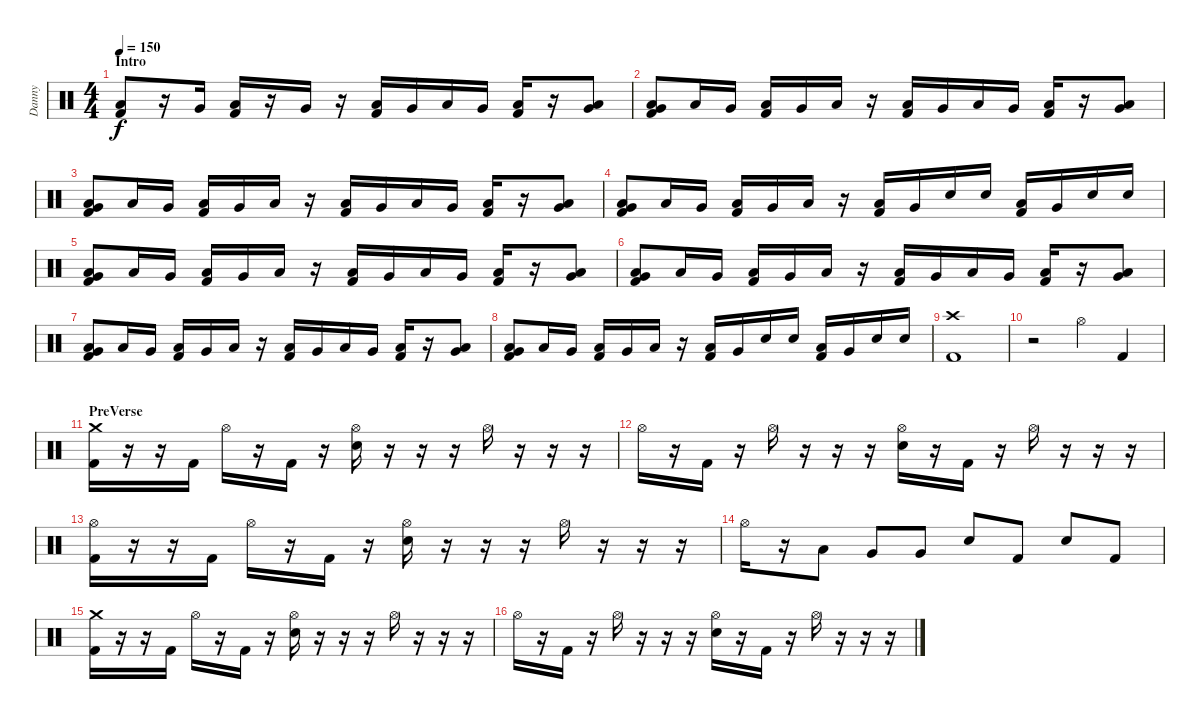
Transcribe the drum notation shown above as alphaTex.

\track ("Danny" "Danny") {instrument percussion}
\staff {score}
\articulation defaults
\ts (4 4)
\section ("" "Intro")
\tempo 150
\clef neutral
\ks c
("Low Floor Tom (hit)" "Kick (hit) 2").8{dy f} r.16 "Very Low Tom (hit)".16 ("Low Floor Tom (hit)" "Kick (hit) 2").16 r.16 "Very Low Tom (hit)".16 r.16 ("Low Floor Tom (hit)" "Kick (hit) 2").16 "Very Low Tom (hit)".16 "Low Floor Tom (hit)".16 "Very Low Tom (hit)".16 ("Low Floor Tom (hit)" "Kick (hit) 2").16 r.16 ("Very Low Tom (hit)" "Low Floor Tom (hit)").8 |
("Very Low Tom (hit)" "Low Floor Tom (hit)" "Kick (hit) 2").8 "Low Floor Tom (hit)".16 "Very Low Tom (hit)".16 ("Low Floor Tom (hit)" "Kick (hit) 2").16 "Very Low Tom (hit)".16 "Low Floor Tom (hit)".16 r.16 ("Low Floor Tom (hit)" "Kick (hit) 2").16 "Very Low Tom (hit)".16 "Low Floor Tom (hit)".16 "Very Low Tom (hit)".16 ("Low Floor Tom (hit)" "Kick (hit) 2").16 r.16 ("Very Low Tom (hit)" "Low Floor Tom (hit)").8 |
("Very Low Tom (hit)" "Low Floor Tom (hit)" "Kick (hit) 2").8 "Low Floor Tom (hit)".16 "Very Low Tom (hit)".16 ("Low Floor Tom (hit)" "Kick (hit) 2").16 "Very Low Tom (hit)".16 "Low Floor Tom (hit)".16 r.16 ("Low Floor Tom (hit)" "Kick (hit) 2").16 "Very Low Tom (hit)".16 "Low Floor Tom (hit)".16 "Very Low Tom (hit)".16 ("Low Floor Tom (hit)" "Kick (hit) 2").16 r.16 ("Very Low Tom (hit)" "Low Floor Tom (hit)").8 |
("Very Low Tom (hit)" "Low Floor Tom (hit)" "Kick (hit) 2").8 "Low Floor Tom (hit)".16 "Very Low Tom (hit)".16 ("Low Floor Tom (hit)" "Kick (hit) 2").16 "Very Low Tom (hit)".16 "Low Floor Tom (hit)".16 r.16 ("Low Floor Tom (hit)" "Kick (hit) 2").16 "Very Low Tom (hit)".16 "Electric Snare (hit)".16 "Electric Snare (hit)".16 ("Low Floor Tom (hit)" "Kick (hit) 2").16 "Very Low Tom (hit)".16 "Electric Snare (hit)".16 "Electric Snare (hit)".16 |
("Very Low Tom (hit)" "Low Floor Tom (hit)" "Kick (hit) 2").8 "Low Floor Tom (hit)".16 "Very Low Tom (hit)".16 ("Low Floor Tom (hit)" "Kick (hit) 2").16 "Very Low Tom (hit)".16 "Low Floor Tom (hit)".16 r.16 ("Low Floor Tom (hit)" "Kick (hit) 2").16 "Very Low Tom (hit)".16 "Low Floor Tom (hit)".16 "Very Low Tom (hit)".16 ("Low Floor Tom (hit)" "Kick (hit) 2").16 r.16 ("Very Low Tom (hit)" "Low Floor Tom (hit)").8 |
("Very Low Tom (hit)" "Low Floor Tom (hit)" "Kick (hit) 2").8 "Low Floor Tom (hit)".16 "Very Low Tom (hit)".16 ("Low Floor Tom (hit)" "Kick (hit) 2").16 "Very Low Tom (hit)".16 "Low Floor Tom (hit)".16 r.16 ("Low Floor Tom (hit)" "Kick (hit) 2").16 "Very Low Tom (hit)".16 "Low Floor Tom (hit)".16 "Very Low Tom (hit)".16 ("Low Floor Tom (hit)" "Kick (hit) 2").16 r.16 ("Very Low Tom (hit)" "Low Floor Tom (hit)").8 |
("Very Low Tom (hit)" "Low Floor Tom (hit)" "Kick (hit) 2").8 "Low Floor Tom (hit)".16 "Very Low Tom (hit)".16 ("Low Floor Tom (hit)" "Kick (hit) 2").16 "Very Low Tom (hit)".16 "Low Floor Tom (hit)".16 r.16 ("Low Floor Tom (hit)" "Kick (hit) 2").16 "Very Low Tom (hit)".16 "Low Floor Tom (hit)".16 "Very Low Tom (hit)".16 ("Low Floor Tom (hit)" "Kick (hit) 2").16 r.16 ("Very Low Tom (hit)" "Low Floor Tom (hit)").8 |
("Very Low Tom (hit)" "Low Floor Tom (hit)" "Kick (hit) 2").8 "Low Floor Tom (hit)".16 "Very Low Tom (hit)".16 ("Low Floor Tom (hit)" "Kick (hit) 2").16 "Very Low Tom (hit)".16 "Low Floor Tom (hit)".16 r.16 ("Low Floor Tom (hit)" "Kick (hit) 2").16 "Very Low Tom (hit)".16 "Electric Snare (hit)".16 "Electric Snare (hit)".16 ("Low Floor Tom (hit)" "Kick (hit) 2").16 "Very Low Tom (hit)".16 "Electric Snare (hit)".16 "Electric Snare (hit)".16 |
("Crash high (hit)" "Kick (hit) 2").1 |
r.2 "Hi-Hat (open)".4 "Kick (hit) 2".4 |
\section ("" "PreVerse")
("Crash medium (hit)" "Kick (hit) 2").16 r.16 r.16 "Kick (hit) 2".16 "Hi-Hat (open)".16 r.16 "Kick (hit) 2".16 r.16 ("Hi-Hat (open)" "Electric Snare (hit)").16 r.16 r.16 r.16 "Hi-Hat (open)".16 r.16 r.16 r.16 |
"Hi-Hat (open)".16 r.16 "Kick (hit) 2".16 r.16 "Hi-Hat (open)".16 r.16 r.16 r.16 ("Hi-Hat (open)" "Electric Snare (hit)").16 r.16 "Kick (hit) 2".16 r.16 "Hi-Hat (open)".16 r.16 r.16 r.16 |
("Hi-Hat (open)" "Kick (hit) 2").16 r.16 r.16 "Kick (hit) 2".16 "Hi-Hat (open)".16 r.16 "Kick (hit) 2".16 r.16 ("Hi-Hat (open)" "Electric Snare (hit)").16 r.16 r.16 r.16 "Hi-Hat (open)".16 r.16 r.16 r.16 |
"Hi-Hat (open)".16 r.16 "Low Tom (hit)".8 "Very Low Tom (hit)".8 "Very Low Tom (hit)".8 "Electric Snare (hit)".8 "Kick (hit) 2".8 "Electric Snare (hit)".8 "Kick (hit) 2".8 |
("Crash medium (hit)" "Kick (hit) 2").16 r.16 r.16 "Kick (hit) 2".16 "Hi-Hat (open)".16 r.16 "Kick (hit) 2".16 r.16 ("Hi-Hat (open)" "Electric Snare (hit)").16 r.16 r.16 r.16 "Hi-Hat (open)".16 r.16 r.16 r.16 |
"Hi-Hat (open)".16 r.16 "Kick (hit) 2".16 r.16 "Hi-Hat (open)".16 r.16 r.16 r.16 ("Hi-Hat (open)" "Electric Snare (hit)").16 r.16 "Kick (hit) 2".16 r.16 "Hi-Hat (open)".16 r.16 r.16 r.16
